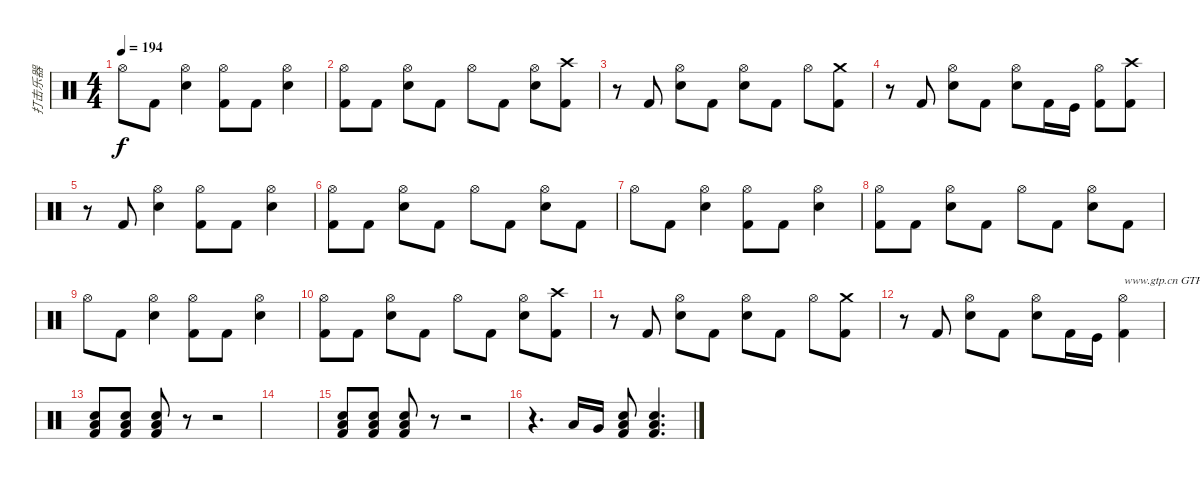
\track ("打击乐器" "打击乐器") {instrument percussion}
\staff {score}
\articulation defaults
\ts (4 4)
\tempo 194
\clef neutral
\ks c "Hi-Hat (open)".8{dy f} "Kick (hit) 2".8
("Hi-Hat (open)" "Electric Snare (hit)").4 ("Hi-Hat (open)" "Kick (hit) 2").8 "Kick (hit) 2".8 ("Hi-Hat (open)" "Electric Snare (hit)").4 |
("Hi-Hat (open)" "Kick (hit) 2").8 "Kick (hit) 2".8 ("Hi-Hat (open)" "Electric Snare (hit)").8 "Kick (hit) 2".8 "Hi-Hat (open)".8 "Kick (hit) 2".8 ("Hi-Hat (open)" "Electric Snare (hit)").8 ("Crash high (hit)" "Kick (hit) 2").8 |
r.8 "Kick (hit) 2".8 ("Hi-Hat (open)" "Electric Snare (hit)").8 "Kick (hit) 2".8 ("Hi-Hat (open)" "Electric Snare (hit)").8 "Kick (hit) 2".8 "Hi-Hat (open)".8 ("Crash medium (hit)" "Kick (hit) 2").8 |
r.8 "Kick (hit) 2".8 ("Hi-Hat (open)" "Electric Snare (hit)").8 "Kick (hit) 2".8 ("Hi-Hat (open)" "Electric Snare (hit)").8 "Kick (hit) 2".16 "Kick (hit)".16 ("Hi-Hat (open)" "Kick (hit) 2").8 ("Crash high (hit)" "Kick (hit) 2").8 |
r.8 "Kick (hit) 2".8 ("Hi-Hat (open)" "Electric Snare (hit)").4 ("Hi-Hat (open)" "Kick (hit) 2").8 "Kick (hit) 2".8 ("Hi-Hat (open)" "Electric Snare (hit)").4 |
("Hi-Hat (open)" "Kick (hit) 2").8 "Kick (hit) 2".8 ("Hi-Hat (open)" "Electric Snare (hit)").8 "Kick (hit) 2".8 "Hi-Hat (open)".8 "Kick (hit) 2".8 ("Hi-Hat (open)" "Electric Snare (hit)").8 "Kick (hit) 2".8 |
"Hi-Hat (open)".8 "Kick (hit) 2".8 ("Hi-Hat (open)" "Electric Snare (hit)").4 ("Hi-Hat (open)" "Kick (hit) 2").8 "Kick (hit) 2".8 ("Hi-Hat (open)" "Electric Snare (hit)").4 |
("Hi-Hat (open)" "Kick (hit) 2").8 "Kick (hit) 2".8 ("Hi-Hat (open)" "Electric Snare (hit)").8 "Kick (hit) 2".8 "Hi-Hat (open)".8 "Kick (hit) 2".8 ("Hi-Hat (open)" "Electric Snare (hit)").8 "Kick (hit) 2".8 |
"Hi-Hat (open)".8 "Kick (hit) 2".8 ("Hi-Hat (open)" "Electric Snare (hit)").4 ("Hi-Hat (open)" "Kick (hit) 2").8 "Kick (hit) 2".8 ("Hi-Hat (open)" "Electric Snare (hit)").4 |
("Hi-Hat (open)" "Kick (hit) 2").8 "Kick (hit) 2".8 ("Hi-Hat (open)" "Electric Snare (hit)").8 "Kick (hit) 2".8 "Hi-Hat (open)".8 "Kick (hit) 2".8 ("Hi-Hat (open)" "Electric Snare (hit)").8 ("Crash high (hit)" "Kick (hit) 2").8 |
r.8 "Kick (hit) 2".8 ("Hi-Hat (open)" "Electric Snare (hit)").8 "Kick (hit) 2".8 ("Hi-Hat (open)" "Electric Snare (hit)").8 "Kick (hit) 2".8 "Hi-Hat (open)".8 ("Crash medium (hit)" "Kick (hit) 2").8 |
r.8 "Kick (hit) 2".8 ("Hi-Hat (open)" "Electric Snare (hit)").8 "Kick (hit) 2".8 ("Hi-Hat (open)" "Electric Snare (hit)").8 "Kick (hit) 2".16 "Kick (hit)".16 ("Hi-Hat (open)" "Kick (hit) 2").4{txt "www.gtp.cn GTP中文娱乐网为您提供优秀的谱子"} |
("Electric Snare (hit)" "Low Floor Tom (hit)" "Kick (hit) 2").8 ("Electric Snare (hit)" "Low Floor Tom (hit)" "Kick (hit) 2").8 ("Electric Snare (hit)" "Low Floor Tom (hit)" "Kick (hit) 2").8 r.8 r.2 |
|
("Electric Snare (hit)" "Low Floor Tom (hit)" "Kick (hit) 2").8 ("Electric Snare (hit)" "Low Floor Tom (hit)" "Kick (hit) 2").8 ("Electric Snare (hit)" "Low Floor Tom (hit)" "Kick (hit) 2").8 r.8 r.2 |
r.4{d} "Low Tom (hit)".16 "Very Low Tom (hit)".16 ("Electric Snare (hit)" "Low Floor Tom (hit)" "Kick (hit) 2").8 ("Electric Snare (hit)" "Low Floor Tom (hit)" "Kick (hit) 2").4{d}
